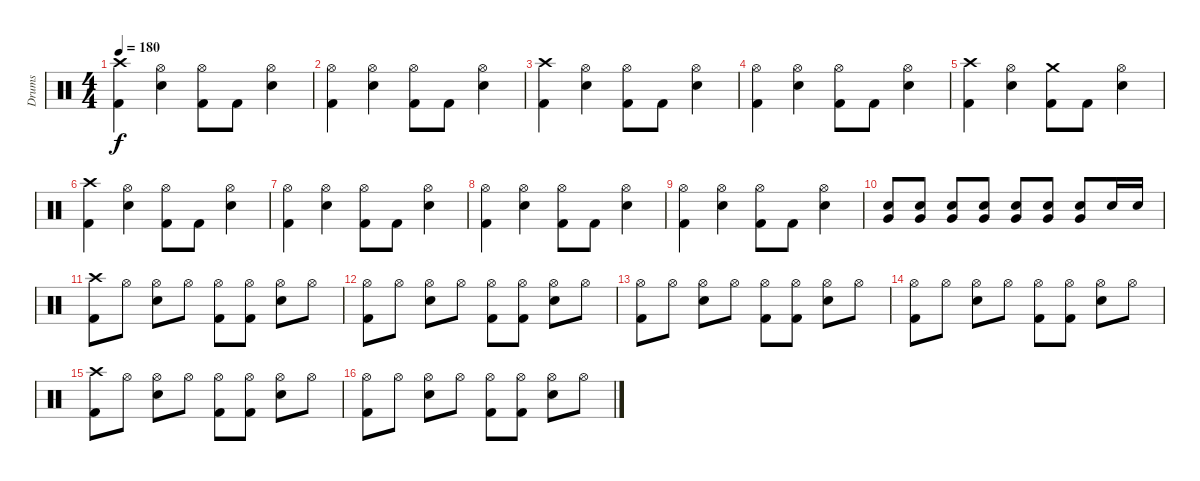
\track ("Drums" "Drums") {instrument percussion}
\staff {score}
\articulation defaults
\ts (4 4)
\tempo 180
\clef neutral
\ks c
("Crash high (hit)" "Kick (hit) 2").4{dy f} ("Hi-Hat (open)" "Snare (hit) 2").4 ("Hi-Hat (open)" "Kick (hit) 2").8 "Kick (hit) 2".8 ("Hi-Hat (open)" "Snare (hit) 2").4 |
("Hi-Hat (open)" "Kick (hit) 2").4 ("Hi-Hat (open)" "Snare (hit) 2").4 ("Hi-Hat (open)" "Kick (hit) 2").8 "Kick (hit) 2".8 ("Hi-Hat (open)" "Snare (hit) 2").4 |
("Crash high (hit)" "Kick (hit) 2").4 ("Hi-Hat (open)" "Snare (hit) 2").4 ("Hi-Hat (open)" "Kick (hit) 2").8 "Kick (hit) 2".8 ("Hi-Hat (open)" "Snare (hit) 2").4 |
("Hi-Hat (open)" "Kick (hit) 2").4 ("Hi-Hat (open)" "Snare (hit) 2").4 ("Hi-Hat (open)" "Kick (hit) 2").8 "Kick (hit) 2".8 ("Hi-Hat (open)" "Snare (hit) 2").4 |
("Crash high (hit)" "Kick (hit) 2").4 ("Hi-Hat (open)" "Snare (hit) 2").4 ("Crash medium (hit)" "Kick (hit) 2").8 "Kick (hit) 2".8 ("Hi-Hat (open)" "Snare (hit) 2").4 |
("Crash high (hit)" "Kick (hit) 2").4 ("Hi-Hat (open)" "Snare (hit) 2").4 ("Hi-Hat (open)" "Kick (hit) 2").8 "Kick (hit) 2".8 ("Hi-Hat (open)" "Snare (hit) 2").4 |
("Hi-Hat (open)" "Kick (hit) 2").4 ("Hi-Hat (open)" "Snare (hit) 2").4 ("Hi-Hat (open)" "Kick (hit) 2").8 "Kick (hit) 2".8 ("Hi-Hat (open)" "Snare (hit) 2").4 |
("Hi-Hat (open)" "Kick (hit) 2").4 ("Hi-Hat (open)" "Snare (hit) 2").4 ("Hi-Hat (open)" "Kick (hit) 2").8 "Kick (hit) 2".8 ("Hi-Hat (open)" "Snare (hit) 2").4 |
("Hi-Hat (open)" "Kick (hit) 2").4 ("Hi-Hat (open)" "Snare (hit) 2").4 ("Hi-Hat (open)" "Kick (hit) 2").8 "Kick (hit) 2".8 ("Hi-Hat (open)" "Snare (hit) 2").4 |
("Snare (hit) 2" "Very Low Tom (hit)").8 ("Snare (hit) 2" "Very Low Tom (hit)").8 ("Snare (hit) 2" "Very Low Tom (hit)").8 ("Snare (hit) 2" "Very Low Tom (hit)").8 ("Snare (hit) 2" "Very Low Tom (hit)").8 ("Snare (hit) 2" "Very Low Tom (hit)").8 ("Snare (hit) 2" "Very Low Tom (hit)").8 "Snare (hit) 2".16 "Snare (hit) 2".16 |
("Crash high (hit)" "Kick (hit) 2").8 "Hi-Hat (open)".8 ("Hi-Hat (open)" "Snare (hit) 2").8 "Hi-Hat (open)".8 ("Hi-Hat (open)" "Kick (hit) 2").8 ("Hi-Hat (open)" "Kick (hit) 2").8 ("Hi-Hat (open)" "Snare (hit) 2").8 "Hi-Hat (open)".8 |
("Hi-Hat (open)" "Kick (hit) 2").8 "Hi-Hat (open)".8 ("Hi-Hat (open)" "Snare (hit) 2").8 "Hi-Hat (open)".8 ("Hi-Hat (open)" "Kick (hit) 2").8 ("Hi-Hat (open)" "Kick (hit) 2").8 ("Hi-Hat (open)" "Snare (hit) 2").8 "Hi-Hat (open)".8 |
("Hi-Hat (open)" "Kick (hit) 2").8 "Hi-Hat (open)".8 ("Hi-Hat (open)" "Snare (hit) 2").8 "Hi-Hat (open)".8 ("Hi-Hat (open)" "Kick (hit) 2").8 ("Hi-Hat (open)" "Kick (hit) 2").8 ("Hi-Hat (open)" "Snare (hit) 2").8 "Hi-Hat (open)".8 |
("Hi-Hat (open)" "Kick (hit) 2").8 "Hi-Hat (open)".8 ("Hi-Hat (open)" "Snare (hit) 2").8 "Hi-Hat (open)".8 ("Hi-Hat (open)" "Kick (hit) 2").8 ("Hi-Hat (open)" "Kick (hit) 2").8 ("Hi-Hat (open)" "Snare (hit) 2").8 "Hi-Hat (open)".8 |
("Crash high (hit)" "Kick (hit) 2").8 "Hi-Hat (open)".8 ("Hi-Hat (open)" "Snare (hit) 2").8 "Hi-Hat (open)".8 ("Hi-Hat (open)" "Kick (hit) 2").8 ("Hi-Hat (open)" "Kick (hit) 2").8 ("Hi-Hat (open)" "Snare (hit) 2").8 "Hi-Hat (open)".8 |
("Hi-Hat (open)" "Kick (hit) 2").8 "Hi-Hat (open)".8 ("Hi-Hat (open)" "Snare (hit) 2").8 "Hi-Hat (open)".8 ("Hi-Hat (open)" "Kick (hit) 2").8 ("Hi-Hat (open)" "Kick (hit) 2").8 ("Hi-Hat (open)" "Snare (hit) 2").8 "Hi-Hat (open)".8
